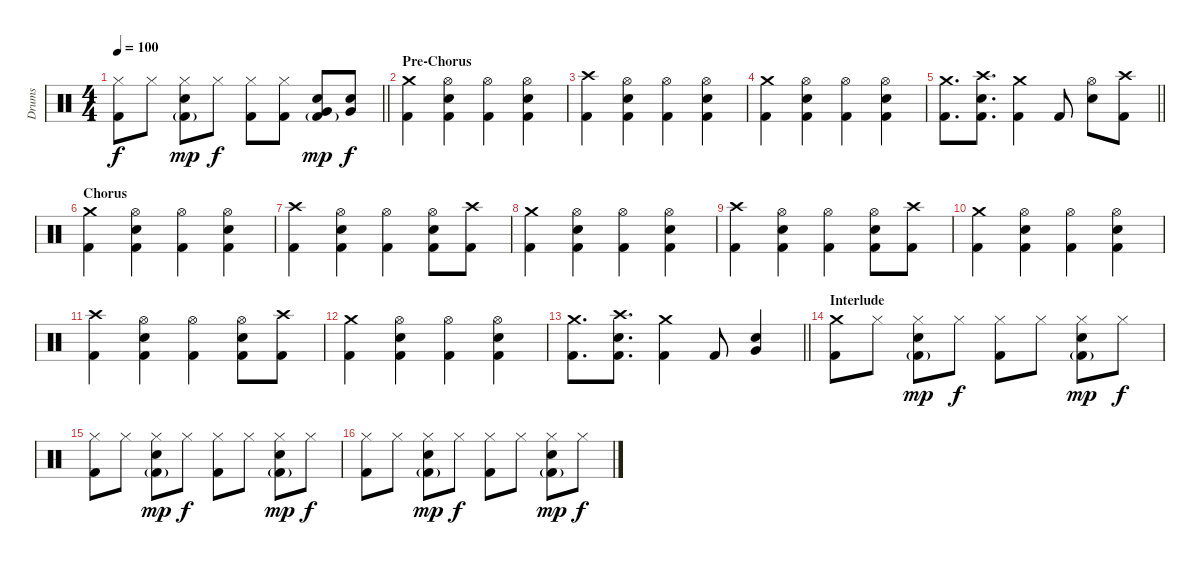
\track ("Drums" "Drums") {instrument percussion}
\staff {score}
\articulation defaults
\ts (4 4)
\tempo 100
\clef neutral
\barLineRight lightlight
\ks c
("Hi-Hat (closed)" "Kick (hit) 2").8{dy f} "Hi-Hat (closed)".8 ("Hi-Hat (closed)" "Electric Snare (hit)" "Kick (hit) 2"{g}).8{dy mp} "Hi-Hat (closed)".8{dy f} ("Hi-Hat (closed)" "Kick (hit) 2").8 ("Hi-Hat (closed)" "Kick (hit) 2").8 ("Electric Snare (hit)" "Very Low Tom (hit)" "Kick (hit) 2"{g}).8{dy mp} ("Electric Snare (hit)" "Very Low Tom (hit)").8{dy f} |
\section ("" "Pre-Chorus")
("Crash medium (hit)" "Kick (hit) 2").4 ("Hi-Hat (open)" "Electric Snare (hit)" "Kick (hit) 2").4 ("Hi-Hat (open)" "Kick (hit) 2").4 ("Hi-Hat (open)" "Electric Snare (hit)" "Kick (hit) 2").4 |
("Crash high (hit)" "Kick (hit) 2").4 ("Hi-Hat (open)" "Electric Snare (hit)" "Kick (hit) 2").4 ("Hi-Hat (open)" "Kick (hit) 2").4 ("Hi-Hat (open)" "Electric Snare (hit)" "Kick (hit) 2").4 |
("Crash medium (hit)" "Kick (hit) 2").4 ("Hi-Hat (open)" "Electric Snare (hit)" "Kick (hit) 2").4 ("Hi-Hat (open)" "Kick (hit) 2").4 ("Hi-Hat (open)" "Electric Snare (hit)" "Kick (hit) 2").4 |
\barLineRight lightlight
("Crash medium (hit)" "Kick (hit) 2").8{d} ("Crash high (hit)" "Electric Snare (hit)" "Kick (hit) 2").8{d} ("Crash medium (hit)" "Kick (hit) 2").4 "Kick (hit) 2".8 ("Hi-Hat (open)" "Electric Snare (hit)").8 ("Crash high (hit)" "Kick (hit) 2").8 |
\section ("" "Chorus")
("Crash medium (hit)" "Kick (hit) 2").4 ("Hi-Hat (open)" "Electric Snare (hit)" "Kick (hit) 2").4 ("Hi-Hat (open)" "Kick (hit) 2").4 ("Hi-Hat (open)" "Electric Snare (hit)" "Kick (hit) 2").4 |
("Crash high (hit)" "Kick (hit) 2").4 ("Hi-Hat (open)" "Electric Snare (hit)" "Kick (hit) 2").4 ("Hi-Hat (open)" "Kick (hit) 2").4 ("Hi-Hat (open)" "Electric Snare (hit)" "Kick (hit) 2").8 ("Crash high (hit)" "Kick (hit) 2").8 |
("Crash medium (hit)" "Kick (hit) 2").4 ("Hi-Hat (open)" "Electric Snare (hit)" "Kick (hit) 2").4 ("Hi-Hat (open)" "Kick (hit) 2").4 ("Hi-Hat (open)" "Electric Snare (hit)" "Kick (hit) 2").4 |
("Crash high (hit)" "Kick (hit) 2").4 ("Hi-Hat (open)" "Electric Snare (hit)" "Kick (hit) 2").4 ("Hi-Hat (open)" "Kick (hit) 2").4 ("Hi-Hat (open)" "Electric Snare (hit)" "Kick (hit) 2").8 ("Crash high (hit)" "Kick (hit) 2").8 |
("Crash medium (hit)" "Kick (hit) 2").4 ("Hi-Hat (open)" "Electric Snare (hit)" "Kick (hit) 2").4 ("Hi-Hat (open)" "Kick (hit) 2").4 ("Hi-Hat (open)" "Electric Snare (hit)" "Kick (hit) 2").4 |
("Crash high (hit)" "Kick (hit) 2").4 ("Hi-Hat (open)" "Electric Snare (hit)" "Kick (hit) 2").4 ("Hi-Hat (open)" "Kick (hit) 2").4 ("Hi-Hat (open)" "Electric Snare (hit)" "Kick (hit) 2").8 ("Crash high (hit)" "Kick (hit) 2").8 |
("Crash medium (hit)" "Kick (hit) 2").4 ("Hi-Hat (open)" "Electric Snare (hit)" "Kick (hit) 2").4 ("Hi-Hat (open)" "Kick (hit) 2").4 ("Hi-Hat (open)" "Electric Snare (hit)" "Kick (hit) 2").4 |
\barLineRight lightlight
("Crash medium (hit)" "Kick (hit) 2").8{d} ("Crash high (hit)" "Electric Snare (hit)" "Kick (hit) 2").8{d} ("Crash medium (hit)" "Kick (hit) 2").4 "Kick (hit) 2".8 ("Very Low Tom (hit)" "Electric Snare (hit)").4 |
\section ("" "Interlude")
("Crash medium (hit)" "Kick (hit) 2").8 "Hi-Hat (closed)".8 ("Hi-Hat (closed)" "Electric Snare (hit)" "Kick (hit) 2"{g}).8{dy mp} "Hi-Hat (closed)".8{dy f} ("Hi-Hat (closed)" "Kick (hit) 2").8 "Hi-Hat (closed)".8 ("Hi-Hat (closed)" "Electric Snare (hit)" "Kick (hit) 2"{g}).8{dy mp} "Hi-Hat (closed)".8{dy f} |
("Hi-Hat (closed)" "Kick (hit) 2").8 "Hi-Hat (closed)".8 ("Hi-Hat (closed)" "Electric Snare (hit)" "Kick (hit) 2"{g}).8{dy mp} "Hi-Hat (closed)".8{dy f} ("Hi-Hat (closed)" "Kick (hit) 2").8 "Hi-Hat (closed)".8 ("Hi-Hat (closed)" "Electric Snare (hit)" "Kick (hit) 2"{g}).8{dy mp} "Hi-Hat (closed)".8{dy f} |
("Hi-Hat (closed)" "Kick (hit) 2").8 "Hi-Hat (closed)".8 ("Hi-Hat (closed)" "Electric Snare (hit)" "Kick (hit) 2"{g}).8{dy mp} "Hi-Hat (closed)".8{dy f} ("Hi-Hat (closed)" "Kick (hit) 2").8 "Hi-Hat (closed)".8 ("Hi-Hat (closed)" "Electric Snare (hit)" "Kick (hit) 2"{g}).8{dy mp} "Hi-Hat (closed)".8{dy f}
